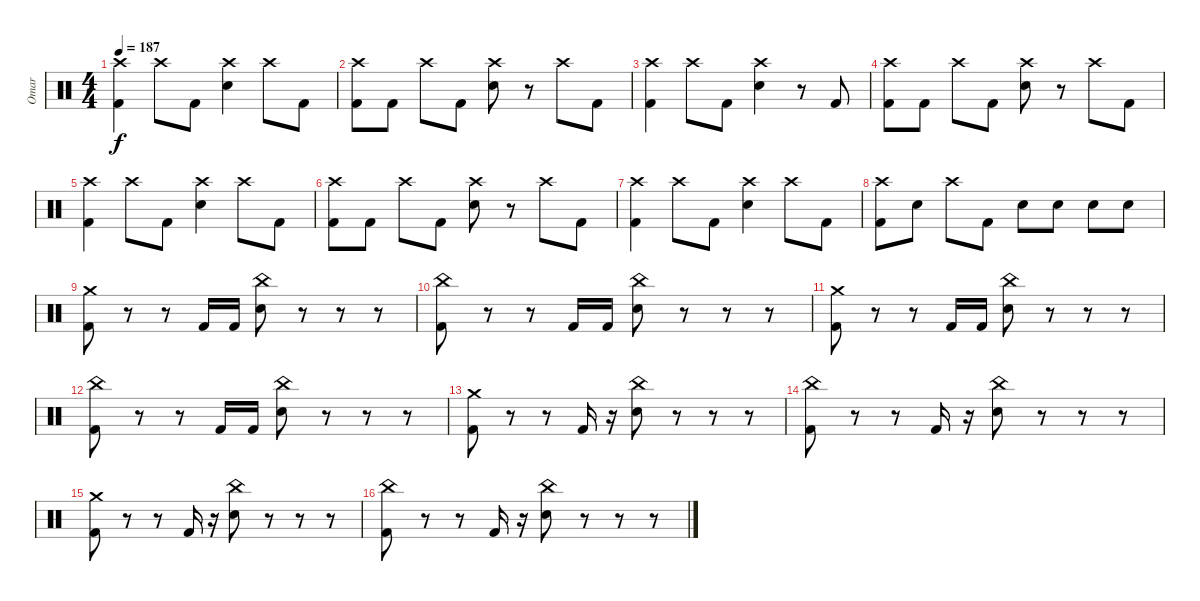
\track ("Omar" "Omar") {instrument percussion}
\staff {score}
\articulation defaults
\ts (4 4)
\tempo 187
\clef neutral
\ks c
("Crash high (hit)" "Kick (hit) 2").4{dy f} "Crash high (hit)".8 "Kick (hit) 2".8 ("Crash high (hit)" "Snare (hit) 2").4 "Crash high (hit)".8 "Kick (hit) 2".8 |
("Crash high (hit)" "Kick (hit) 2").8 "Kick (hit) 2".8 "Crash high (hit)".8 "Kick (hit) 2".8 ("Crash high (hit)" "Snare (hit) 2").8 r.8 "Crash high (hit)".8 "Kick (hit) 2".8 |
("Crash high (hit)" "Kick (hit) 2").4 "Crash high (hit)".8 "Kick (hit) 2".8 ("Crash high (hit)" "Snare (hit) 2").4 r.8 "Kick (hit) 2".8 |
("Crash high (hit)" "Kick (hit) 2").8 "Kick (hit) 2".8 "Crash high (hit)".8 "Kick (hit) 2".8 ("Crash high (hit)" "Snare (hit) 2").8 r.8 "Crash high (hit)".8 "Kick (hit) 2".8 |
("Crash high (hit)" "Kick (hit) 2").4 "Crash high (hit)".8 "Kick (hit) 2".8 ("Crash high (hit)" "Snare (hit) 2").4 "Crash high (hit)".8 "Kick (hit) 2".8 |
("Crash high (hit)" "Kick (hit) 2").8 "Kick (hit) 2".8 "Crash high (hit)".8 "Kick (hit) 2".8 ("Crash high (hit)" "Snare (hit) 2").8 r.8 "Crash high (hit)".8 "Kick (hit) 2".8 |
("Crash high (hit)" "Kick (hit) 2").4 "Crash high (hit)".8 "Kick (hit) 2".8 ("Crash high (hit)" "Snare (hit) 2").4 "Crash high (hit)".8 "Kick (hit) 2".8 |
("Crash high (hit)" "Kick (hit) 2").8 "Snare (hit) 2".8 "Crash high (hit)".8 "Kick (hit) 2".8 "Snare (hit) 2".8 "Snare (hit) 2".8 "Snare (hit) 2".8 "Snare (hit) 2".8 |
("Crash medium (hit)" "Kick (hit) 2").8 r.8 r.8 "Kick (hit) 2".16 "Kick (hit) 2".16 ("China (hit)" "Snare (hit) 2").8 r.8 r.8 r.8 |
("China (hit)" "Kick (hit) 2").8 r.8 r.8 "Kick (hit) 2".16 "Kick (hit) 2".16 ("China (hit)" "Snare (hit) 2").8 r.8 r.8 r.8 |
("Crash medium (hit)" "Kick (hit) 2").8 r.8 r.8 "Kick (hit) 2".16 "Kick (hit) 2".16 ("China (hit)" "Snare (hit) 2").8 r.8 r.8 r.8 |
("China (hit)" "Kick (hit) 2").8 r.8 r.8 "Kick (hit) 2".16 "Kick (hit) 2".16 ("China (hit)" "Snare (hit) 2").8 r.8 r.8 r.8 |
("Crash medium (hit)" "Kick (hit) 2").8 r.8 r.8 "Kick (hit) 2".16 r.16 ("China (hit)" "Snare (hit) 2").8 r.8 r.8 r.8 |
("China (hit)" "Kick (hit) 2").8 r.8 r.8 "Kick (hit) 2".16 r.16 ("China (hit)" "Snare (hit) 2").8 r.8 r.8 r.8 |
("Crash medium (hit)" "Kick (hit) 2").8 r.8 r.8 "Kick (hit) 2".16 r.16 ("China (hit)" "Snare (hit) 2").8 r.8 r.8 r.8 |
("China (hit)" "Kick (hit) 2").8 r.8 r.8 "Kick (hit) 2".16 r.16 ("China (hit)" "Snare (hit) 2").8 r.8 r.8 r.8
